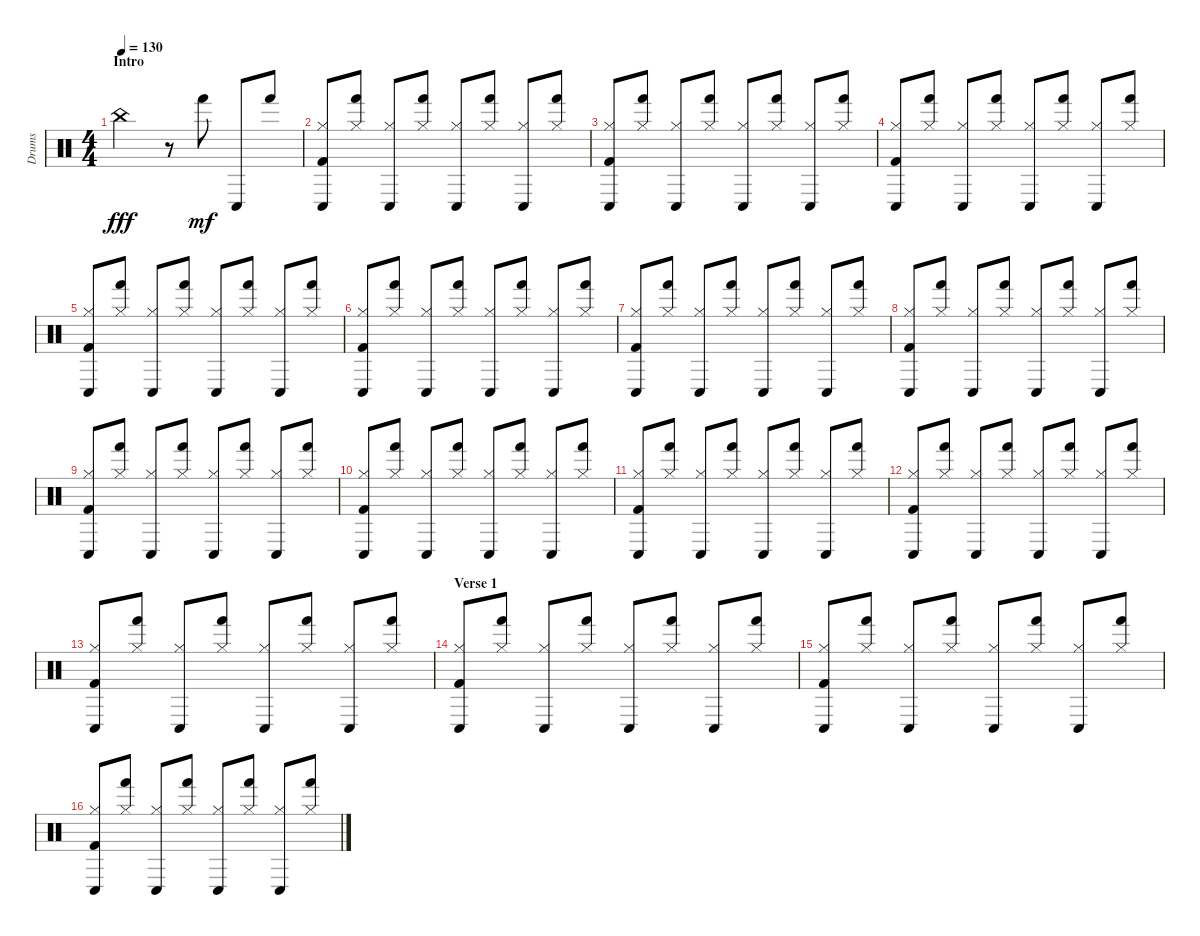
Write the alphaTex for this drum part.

\track ("Drums" "Drums") {instrument percussion}
\staff {score}
\articulation defaults
\ts (4 4)
\section ("" "Intro")
\tempo 130
\clef neutral
\ks c "China (hit)".2{dy fff}
r.8 "Hand (hit)".8{dy mf} "Conga low (hit)".8 "Hand (hit)".8 |
("Kick (hit) 2" "Conga low (hit)" "Hi-Hat (closed)").8 ("Hand (hit)" "Hi-Hat (closed)").8 ("Hi-Hat (closed)" "Conga low (hit)").8 ("Hand (hit)" "Hi-Hat (closed)").8 ("Conga low (hit)" "Hi-Hat (closed)").8 ("Hi-Hat (closed)" "Hand (hit)").8 ("Hi-Hat (closed)" "Conga low (hit)").8 ("Hi-Hat (closed)" "Hand (hit)").8 |
("Kick (hit) 2" "Conga low (hit)" "Hi-Hat (closed)").8 ("Hand (hit)" "Hi-Hat (closed)").8 ("Hi-Hat (closed)" "Conga low (hit)").8 ("Hand (hit)" "Hi-Hat (closed)").8 ("Conga low (hit)" "Hi-Hat (closed)").8 ("Hi-Hat (closed)" "Hand (hit)").8 ("Hi-Hat (closed)" "Conga low (hit)").8 ("Hi-Hat (closed)" "Hand (hit)").8 |
("Kick (hit) 2" "Conga low (hit)" "Hi-Hat (closed)").8 ("Hand (hit)" "Hi-Hat (closed)").8 ("Hi-Hat (closed)" "Conga low (hit)").8 ("Hand (hit)" "Hi-Hat (closed)").8 ("Conga low (hit)" "Hi-Hat (closed)").8 ("Hi-Hat (closed)" "Hand (hit)").8 ("Hi-Hat (closed)" "Conga low (hit)").8 ("Hi-Hat (closed)" "Hand (hit)").8 |
("Kick (hit) 2" "Conga low (hit)" "Hi-Hat (closed)").8 ("Hand (hit)" "Hi-Hat (closed)").8 ("Hi-Hat (closed)" "Conga low (hit)").8 ("Hand (hit)" "Hi-Hat (closed)").8 ("Conga low (hit)" "Hi-Hat (closed)").8 ("Hand (hit)" "Hi-Hat (closed)").8 ("Conga low (hit)" "Hi-Hat (closed)").8 ("Hi-Hat (closed)" "Hand (hit)").8 |
("Kick (hit) 2" "Conga low (hit)" "Hi-Hat (closed)").8 ("Hand (hit)" "Hi-Hat (closed)").8 ("Hi-Hat (closed)" "Conga low (hit)").8 ("Hand (hit)" "Hi-Hat (closed)").8 ("Conga low (hit)" "Hi-Hat (closed)").8 ("Hi-Hat (closed)" "Hand (hit)").8 ("Hi-Hat (closed)" "Conga low (hit)").8 ("Hi-Hat (closed)" "Hand (hit)").8 |
("Kick (hit) 2" "Conga low (hit)" "Hi-Hat (closed)").8 ("Hand (hit)" "Hi-Hat (closed)").8 ("Hi-Hat (closed)" "Conga low (hit)").8 ("Hand (hit)" "Hi-Hat (closed)").8 ("Conga low (hit)" "Hi-Hat (closed)").8 ("Hi-Hat (closed)" "Hand (hit)").8 ("Hi-Hat (closed)" "Conga low (hit)").8 ("Hi-Hat (closed)" "Hand (hit)").8 |
("Kick (hit) 2" "Conga low (hit)" "Hi-Hat (closed)").8 ("Hand (hit)" "Hi-Hat (closed)").8 ("Hi-Hat (closed)" "Conga low (hit)").8 ("Hand (hit)" "Hi-Hat (closed)").8 ("Conga low (hit)" "Hi-Hat (closed)").8 ("Hi-Hat (closed)" "Hand (hit)").8 ("Hi-Hat (closed)" "Conga low (hit)").8 ("Hi-Hat (closed)" "Hand (hit)").8 |
("Kick (hit) 2" "Conga low (hit)" "Hi-Hat (closed)").8 ("Hand (hit)" "Hi-Hat (closed)").8 ("Hi-Hat (closed)" "Conga low (hit)").8 ("Hand (hit)" "Hi-Hat (closed)").8 ("Conga low (hit)" "Hi-Hat (closed)").8 ("Hi-Hat (closed)" "Hand (hit)").8 ("Hi-Hat (closed)" "Conga low (hit)").8 ("Hi-Hat (closed)" "Hand (hit)").8 |
("Kick (hit) 2" "Conga low (hit)" "Hi-Hat (closed)").8 ("Hand (hit)" "Hi-Hat (closed)").8 ("Hi-Hat (closed)" "Conga low (hit)").8 ("Hand (hit)" "Hi-Hat (closed)").8 ("Conga low (hit)" "Hi-Hat (closed)").8 ("Hi-Hat (closed)" "Hand (hit)").8 ("Hi-Hat (closed)" "Conga low (hit)").8 ("Hi-Hat (closed)" "Hand (hit)").8 |
("Kick (hit) 2" "Conga low (hit)" "Hi-Hat (closed)").8 ("Hand (hit)" "Hi-Hat (closed)").8 ("Hi-Hat (closed)" "Conga low (hit)").8 ("Hand (hit)" "Hi-Hat (closed)").8 ("Conga low (hit)" "Hi-Hat (closed)").8 ("Hi-Hat (closed)" "Hand (hit)").8 ("Hi-Hat (closed)" "Conga low (hit)").8 ("Hi-Hat (closed)" "Hand (hit)").8 |
("Kick (hit) 2" "Conga low (hit)" "Hi-Hat (closed)").8 ("Hand (hit)" "Hi-Hat (closed)").8 ("Hi-Hat (closed)" "Conga low (hit)").8 ("Hand (hit)" "Hi-Hat (closed)").8 ("Conga low (hit)" "Hi-Hat (closed)").8 ("Hi-Hat (closed)" "Hand (hit)").8 ("Hi-Hat (closed)" "Conga low (hit)").8 ("Hi-Hat (closed)" "Hand (hit)").8 |
("Kick (hit) 2" "Conga low (hit)" "Hi-Hat (closed)").8 ("Hand (hit)" "Hi-Hat (closed)").8 ("Hi-Hat (closed)" "Conga low (hit)").8 ("Hand (hit)" "Hi-Hat (closed)").8 ("Conga low (hit)" "Hi-Hat (closed)").8 ("Hi-Hat (closed)" "Hand (hit)").8 ("Hi-Hat (closed)" "Conga low (hit)").8 ("Hi-Hat (closed)" "Hand (hit)").8 |
\section ("" "Verse 1")
("Kick (hit) 2" "Conga low (hit)" "Hi-Hat (closed)").8 ("Hand (hit)" "Hi-Hat (closed)").8 ("Hi-Hat (closed)" "Conga low (hit)").8 ("Hand (hit)" "Hi-Hat (closed)").8 ("Conga low (hit)" "Hi-Hat (closed)").8 ("Hi-Hat (closed)" "Hand (hit)").8 ("Hi-Hat (closed)" "Conga low (hit)").8 ("Hi-Hat (closed)" "Hand (hit)").8 |
("Kick (hit) 2" "Conga low (hit)" "Hi-Hat (closed)").8 ("Hand (hit)" "Hi-Hat (closed)").8 ("Hi-Hat (closed)" "Conga low (hit)").8 ("Hand (hit)" "Hi-Hat (closed)").8 ("Conga low (hit)" "Hi-Hat (closed)").8 ("Hi-Hat (closed)" "Hand (hit)").8 ("Hi-Hat (closed)" "Conga low (hit)").8 ("Hi-Hat (closed)" "Hand (hit)").8 |
("Kick (hit) 2" "Conga low (hit)" "Hi-Hat (closed)").8 ("Hand (hit)" "Hi-Hat (closed)").8 ("Hi-Hat (closed)" "Conga low (hit)").8 ("Hand (hit)" "Hi-Hat (closed)").8 ("Conga low (hit)" "Hi-Hat (closed)").8 ("Hi-Hat (closed)" "Hand (hit)").8 ("Hi-Hat (closed)" "Conga low (hit)").8 ("Hi-Hat (closed)" "Hand (hit)").8
